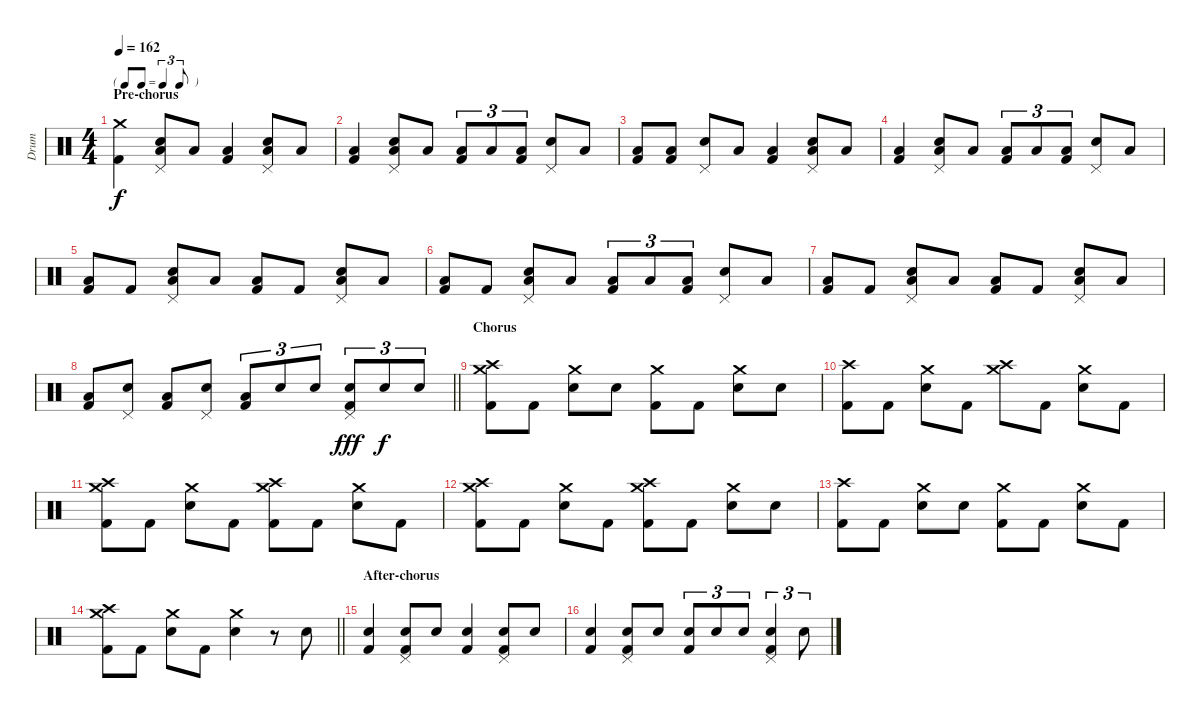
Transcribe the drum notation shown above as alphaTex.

\track ("Drum" "Drum") {instrument percussion}
\staff {score}
\articulation defaults
\ts (4 4)
\tf triplet8th
\section ("" "Pre-chorus")
\tempo 162
\clef neutral
\ks c
("Crash medium (hit)" "Kick (hit) 2").4{dy f} ("Pedal Hi-Hat (hit)" "Snare (hit) 2" "Low Floor Tom (hit)").8 "Low Floor Tom (hit)".8 ("Low Floor Tom (hit)" "Kick (hit) 2").4 ("Pedal Hi-Hat (hit)" "Snare (hit) 2" "Low Floor Tom (hit)").8 "Low Floor Tom (hit)".8 |
("Low Floor Tom (hit)" "Kick (hit) 2").4 ("Pedal Hi-Hat (hit)" "Snare (hit) 2" "Low Floor Tom (hit)").8 "Low Floor Tom (hit)".8 ("Low Floor Tom (hit)" "Kick (hit) 2").8{tu (3 2)} "Low Floor Tom (hit)".8{tu (3 2)} ("Low Floor Tom (hit)" "Kick (hit) 2").8{tu (3 2)} ("Pedal Hi-Hat (hit)" "Snare (hit) 2").8 "Low Floor Tom (hit)".8 |
("Low Floor Tom (hit)" "Kick (hit) 2").8 ("Low Floor Tom (hit)" "Kick (hit) 2").8 ("Pedal Hi-Hat (hit)" "Snare (hit) 2").8 "Low Floor Tom (hit)".8 ("Low Floor Tom (hit)" "Kick (hit) 2").4 ("Pedal Hi-Hat (hit)" "Snare (hit) 2" "Low Floor Tom (hit)").8 "Low Floor Tom (hit)".8 |
("Low Floor Tom (hit)" "Kick (hit) 2").4 ("Pedal Hi-Hat (hit)" "Snare (hit) 2" "Low Floor Tom (hit)").8 "Low Floor Tom (hit)".8 ("Low Floor Tom (hit)" "Kick (hit) 2").8{tu (3 2)} "Low Floor Tom (hit)".8{tu (3 2)} ("Low Floor Tom (hit)" "Kick (hit) 2").8{tu (3 2)} ("Pedal Hi-Hat (hit)" "Snare (hit) 2").8 "Low Floor Tom (hit)".8 |
("Low Floor Tom (hit)" "Kick (hit) 2").8 "Kick (hit) 2".8 ("Pedal Hi-Hat (hit)" "Snare (hit) 2" "Low Floor Tom (hit)").8 "Low Floor Tom (hit)".8 ("Low Floor Tom (hit)" "Kick (hit) 2").8 "Kick (hit) 2".8 ("Pedal Hi-Hat (hit)" "Snare (hit) 2" "Low Floor Tom (hit)").8 "Low Floor Tom (hit)".8 |
("Low Floor Tom (hit)" "Kick (hit) 2").8 "Kick (hit) 2".8 ("Pedal Hi-Hat (hit)" "Snare (hit) 2" "Low Floor Tom (hit)").8 "Low Floor Tom (hit)".8 ("Low Floor Tom (hit)" "Kick (hit) 2").8{tu (3 2)} "Low Floor Tom (hit)".8{tu (3 2)} ("Low Floor Tom (hit)" "Kick (hit) 2").8{tu (3 2)} ("Pedal Hi-Hat (hit)" "Snare (hit) 2").8 "Low Floor Tom (hit)".8 |
("Low Floor Tom (hit)" "Kick (hit) 2").8 "Kick (hit) 2".8 ("Pedal Hi-Hat (hit)" "Snare (hit) 2" "Low Floor Tom (hit)").8 "Low Floor Tom (hit)".8 ("Low Floor Tom (hit)" "Kick (hit) 2").8 "Kick (hit) 2".8 ("Pedal Hi-Hat (hit)" "Snare (hit) 2" "Low Floor Tom (hit)").8 "Low Floor Tom (hit)".8 |
\barLineRight lightlight
("Low Floor Tom (hit)" "Kick (hit) 2").8 ("Pedal Hi-Hat (hit)" "Snare (hit) 2").8 ("Low Floor Tom (hit)" "Kick (hit) 2").8 ("Pedal Hi-Hat (hit)" "Snare (hit) 2").8 ("Low Floor Tom (hit)" "Kick (hit) 2").8{tu (3 2)} "Snare (hit) 2".8{tu (3 2)} "Snare (hit) 2".8{tu (3 2)} ("Pedal Hi-Hat (hit)" "Snare (hit) 2" "Kick (hit) 2").8{tu (3 2) dy fff} "Snare (hit) 2".8{tu (3 2) dy f} "Snare (hit) 2".8{tu (3 2)} |
\section ("" "Chorus")
("Crash medium (hit)" "Crash high (hit)" "Kick (hit) 2").8 "Kick (hit) 2".8 ("Crash medium (hit)" "Snare (hit) 2").8 "Snare (hit) 2".8 ("Crash medium (hit)" "Kick (hit) 2").8 "Kick (hit) 2".8 ("Crash medium (hit)" "Snare (hit) 2").8 "Snare (hit) 2".8 |
("Crash high (hit)" "Kick (hit) 2").8 "Kick (hit) 2".8 ("Crash medium (hit)" "Snare (hit) 2").8 "Kick (hit) 2".8 ("Crash medium (hit)" "Crash high (hit)").8 "Kick (hit) 2".8 ("Crash medium (hit)" "Snare (hit) 2").8 "Kick (hit) 2".8 |
("Crash medium (hit)" "Crash high (hit)" "Kick (hit) 2").8 "Kick (hit) 2".8 ("Crash medium (hit)" "Snare (hit) 2").8 "Kick (hit) 2".8 ("Crash medium (hit)" "Crash high (hit)" "Kick (hit) 2").8 "Kick (hit) 2".8 ("Crash medium (hit)" "Snare (hit) 2").8 "Kick (hit) 2".8 |
("Crash medium (hit)" "Crash high (hit)" "Kick (hit) 2").8 "Kick (hit) 2".8 ("Crash medium (hit)" "Snare (hit) 2").8 "Kick (hit) 2".8 ("Crash medium (hit)" "Crash high (hit)" "Kick (hit) 2").8 "Kick (hit) 2".8 ("Crash medium (hit)" "Snare (hit) 2").8 "Snare (hit) 2".8 |
("Crash high (hit)" "Kick (hit) 2").8 "Kick (hit) 2".8 ("Crash medium (hit)" "Snare (hit) 2").8 "Snare (hit) 2".8 ("Crash medium (hit)" "Kick (hit) 2").8 "Kick (hit) 2".8 ("Crash medium (hit)" "Snare (hit) 2").8 "Kick (hit) 2".8 |
\barLineRight lightlight
("Crash medium (hit)" "Crash high (hit)" "Kick (hit) 2").8 "Kick (hit) 2".8 ("Crash medium (hit)" "Snare (hit) 2").8 "Kick (hit) 2".8 ("Crash medium (hit)" "Snare (hit) 2").4 r.8 "Snare (hit) 2".8 |
\section ("" "After-chorus")
("Snare (hit) 2" "Kick (hit) 2").4 ("Pedal Hi-Hat (hit)" "Snare (hit) 2" "Kick (hit) 2").8 "Snare (hit) 2".8 ("Snare (hit) 2" "Kick (hit) 2").4 ("Pedal Hi-Hat (hit)" "Snare (hit) 2" "Kick (hit) 2").8 "Snare (hit) 2".8 |
("Snare (hit) 2" "Kick (hit) 2").4 ("Pedal Hi-Hat (hit)" "Snare (hit) 2" "Kick (hit) 2").8 "Snare (hit) 2".8 ("Snare (hit) 2" "Kick (hit) 2").8{tu (3 2)} "Snare (hit) 2".8{tu (3 2)} "Snare (hit) 2".8{tu (3 2)} ("Pedal Hi-Hat (hit)" "Snare (hit) 2" "Kick (hit) 2").4{tu (3 2)} "Snare (hit) 2".8{tu (3 2)}
